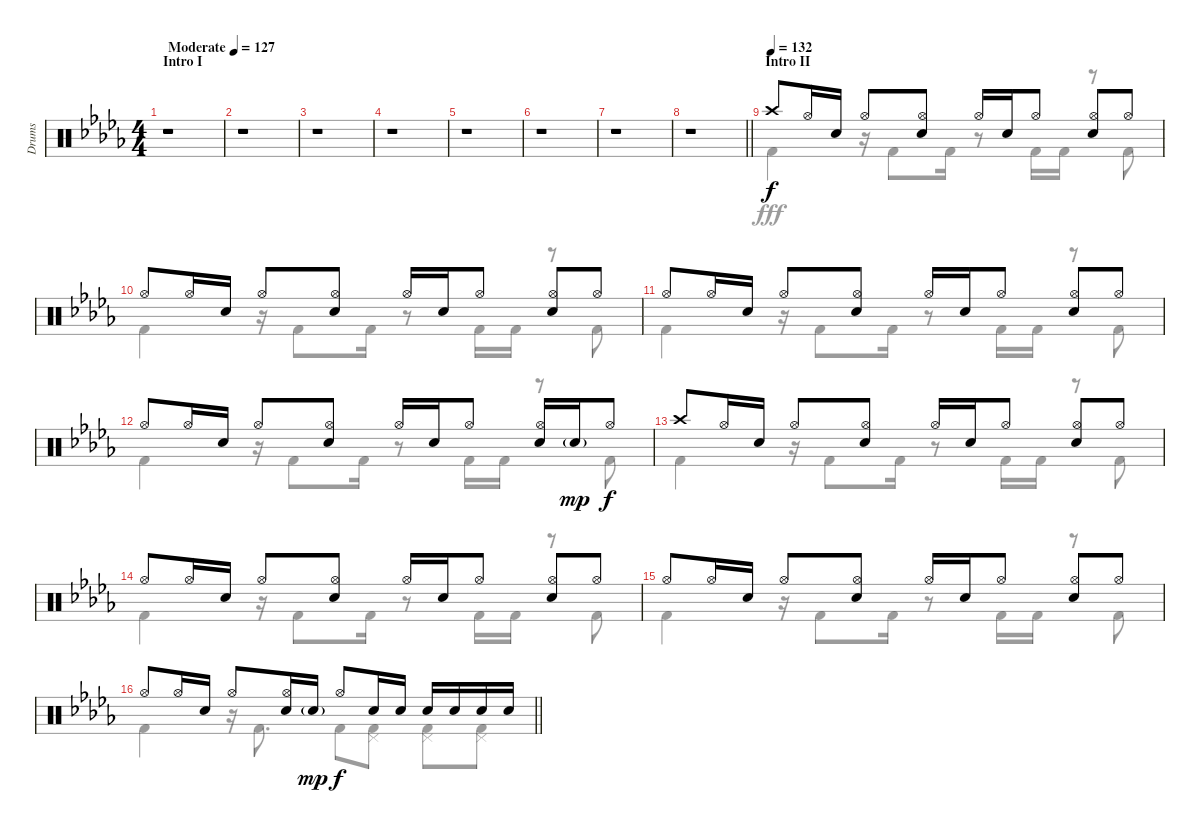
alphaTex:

\track ("Drums" "Drums") {instrument percussion}
\staff {score}
\articulation defaults
\voice
\ts (4 4)
\section ("" "Intro I")
\tempo (127 "Moderate")
\clef neutral
\ks db
r.1{dy f} |
r.1 |
r.1 |
r.1 |
r.1 |
r.1 |
r.1 |
\barLineRight lightlight
r.1 |
\section ("" "Intro II")
\tempo (132)
"Crash high (hit)".8 "Hi-Hat (open)".16 "Snare (hit) 2".16 "Hi-Hat (open)".8 ("Hi-Hat (open)" "Snare (hit) 2").8 "Hi-Hat (open)".16 "Snare (hit) 2".16 "Hi-Hat (open)".8 ("Hi-Hat (open)" "Snare (hit) 2").8 "Hi-Hat (open)".8 |
"Hi-Hat (open)".8 "Hi-Hat (open)".16 "Snare (hit) 2".16 "Hi-Hat (open)".8 ("Hi-Hat (open)" "Snare (hit) 2").8 "Hi-Hat (open)".16 "Snare (hit) 2".16 "Hi-Hat (open)".8 ("Hi-Hat (open)" "Snare (hit) 2").8 "Hi-Hat (open)".8 |
"Hi-Hat (open)".8 "Hi-Hat (open)".16 "Snare (hit) 2".16 "Hi-Hat (open)".8 ("Hi-Hat (open)" "Snare (hit) 2").8 "Hi-Hat (open)".16 "Snare (hit) 2".16 "Hi-Hat (open)".8 ("Hi-Hat (open)" "Snare (hit) 2").8 "Hi-Hat (open)".8 |
"Hi-Hat (open)".8 "Hi-Hat (open)".16 "Snare (hit) 2".16 "Hi-Hat (open)".8 ("Hi-Hat (open)" "Snare (hit) 2").8 "Hi-Hat (open)".16 "Snare (hit) 2".16 "Hi-Hat (open)".8 ("Hi-Hat (open)" "Snare (hit) 2").16 "Snare (hit) 2"{g}.16{dy mp} "Hi-Hat (open)".8{dy f} |
"Crash high (hit)".8 "Hi-Hat (open)".16 "Snare (hit) 2".16 "Hi-Hat (open)".8 ("Hi-Hat (open)" "Snare (hit) 2").8 "Hi-Hat (open)".16 "Snare (hit) 2".16 "Hi-Hat (open)".8 ("Hi-Hat (open)" "Snare (hit) 2").8 "Hi-Hat (open)".8 |
"Hi-Hat (open)".8 "Hi-Hat (open)".16 "Snare (hit) 2".16 "Hi-Hat (open)".8 ("Hi-Hat (open)" "Snare (hit) 2").8 "Hi-Hat (open)".16 "Snare (hit) 2".16 "Hi-Hat (open)".8 ("Hi-Hat (open)" "Snare (hit) 2").8 "Hi-Hat (open)".8 |
"Hi-Hat (open)".8 "Hi-Hat (open)".16 "Snare (hit) 2".16 "Hi-Hat (open)".8 ("Hi-Hat (open)" "Snare (hit) 2").8 "Hi-Hat (open)".16 "Snare (hit) 2".16 "Hi-Hat (open)".8 ("Hi-Hat (open)" "Snare (hit) 2").8 "Hi-Hat (open)".8 |
\barLineRight lightlight "Hi-Hat (open)".8 "Hi-Hat (open)".16 "Snare (hit) 2".16 "Hi-Hat (open)".8
("Hi-Hat (open)" "Snare (hit) 2").16 "Snare (hit) 2"{g}.16{dy mp} "Hi-Hat (open)".8{dy f} "Snare (hit) 2".16 "Snare (hit) 2".16 "Snare (hit) 2".16 "Snare (hit) 2".16 "Snare (hit) 2".16 "Snare (hit) 2".16
\voice
\clef neutral
\ottava regular
\simile none
\ks db
r.1{dy fff} |
r.1 |
r.1 |
r.1 |
r.1 |
r.1 |
r.1 |
\barLineRight lightlight
r.1 |
"Kick (hit) 2".4 r.16 "Kick (hit) 2".8 "Kick (hit) 2".16 r.8 "Kick (hit) 2".16 "Kick (hit) 2".16 r.8 "Kick (hit) 2".8 |
"Kick (hit) 2".4 r.16 "Kick (hit) 2".8 "Kick (hit) 2".16 r.8 "Kick (hit) 2".16 "Kick (hit) 2".16 r.8 "Kick (hit) 2".8 |
"Kick (hit) 2".4 r.16 "Kick (hit) 2".8 "Kick (hit) 2".16 r.8 "Kick (hit) 2".16 "Kick (hit) 2".16 r.8 "Kick (hit) 2".8 |
"Kick (hit) 2".4 r.16 "Kick (hit) 2".8 "Kick (hit) 2".16 r.8 "Kick (hit) 2".16 "Kick (hit) 2".16 r.8 "Kick (hit) 2".8 |
"Kick (hit) 2".4 r.16 "Kick (hit) 2".8 "Kick (hit) 2".16 r.8 "Kick (hit) 2".16 "Kick (hit) 2".16 r.8 "Kick (hit) 2".8 |
"Kick (hit) 2".4 r.16 "Kick (hit) 2".8 "Kick (hit) 2".16 r.8 "Kick (hit) 2".16 "Kick (hit) 2".16 r.8 "Kick (hit) 2".8 |
"Kick (hit) 2".4 r.16 "Kick (hit) 2".8 "Kick (hit) 2".16 r.8 "Kick (hit) 2".16 "Kick (hit) 2".16 r.8 "Kick (hit) 2".8 |
\barLineRight lightlight "Kick (hit) 2".4
r.16 "Kick (hit) 2".8{d} "Kick (hit) 2".8 ("Pedal Hi-Hat (hit)" "Kick (hit) 2").8 ("Pedal Hi-Hat (hit)" "Kick (hit) 2").8 ("Pedal Hi-Hat (hit)" "Kick (hit) 2").8
